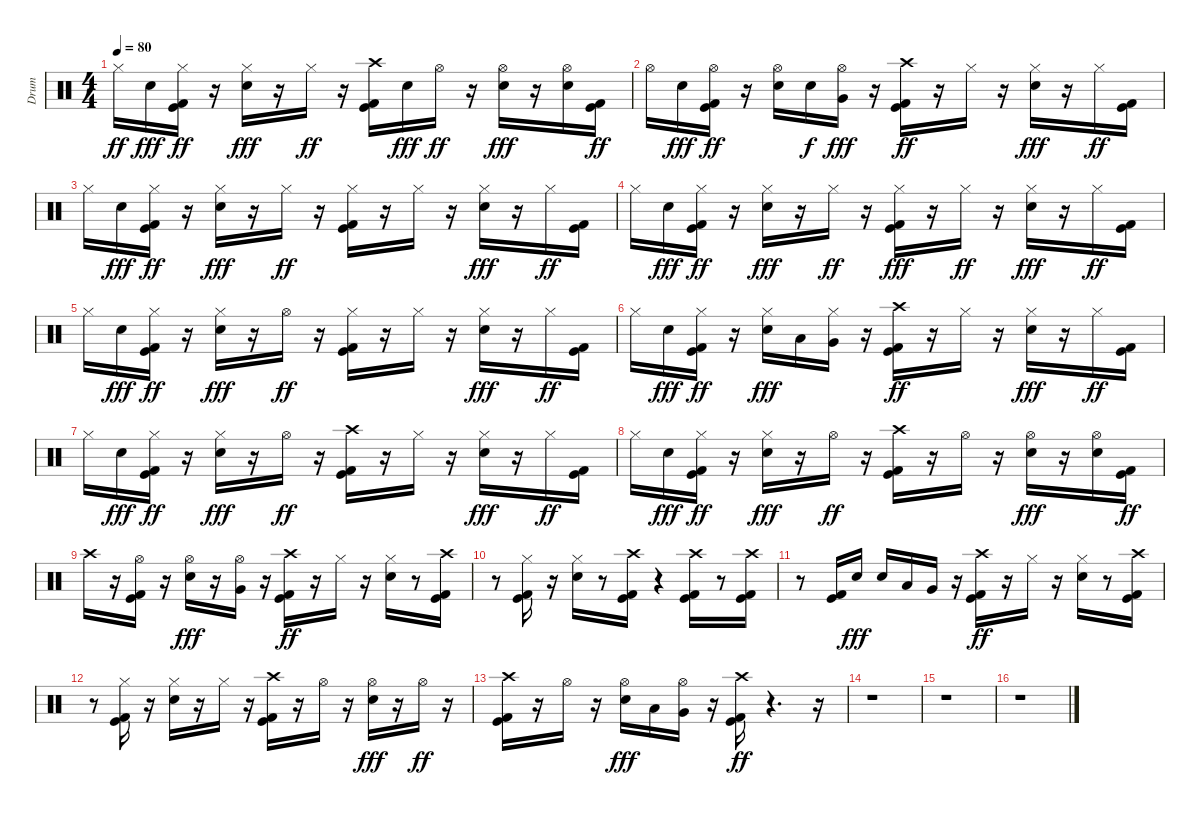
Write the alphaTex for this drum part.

\track ("Drum" "Drum") {instrument percussion}
\staff {score}
\articulation defaults
\ts (4 4)
\tempo 80
\clef neutral
\ks c "Hi-Hat (closed)".16{dy ff} "Electric Snare (hit)".16{dy fff}
("Hi-Hat (closed)" "Kick (hit)" "Kick (hit) 2").16{dy ff} r.16 ("Hi-Hat (closed)" "Electric Snare (hit)").16{dy fff} r.16 "Hi-Hat (closed)".16{dy ff} r.16 ("Kick (hit)" "Kick (hit) 2" "Crash high (hit)").16 "Electric Snare (hit)".16{dy fff} "Hi-Hat (open)".16{dy ff} r.16 ("Hi-Hat (open)" "Electric Snare (hit)").16{dy fff} r.16 ("Hi-Hat (open)" "Electric Snare (hit)").16 ("Kick (hit)" "Kick (hit) 2").16{dy ff} |
"Hi-Hat (open)".16 "Electric Snare (hit)".16{dy fff} ("Kick (hit)" "Kick (hit) 2" "Hi-Hat (open)").16{dy ff} r.16 ("Electric Snare (hit)" "Hi-Hat (open)").16 "Electric Snare (hit)".16{dy f} ("Hi-Hat (open)" "Very Low Tom (hit)").16{dy fff} r.16 ("Crash high (hit)" "Kick (hit)" "Kick (hit) 2").16{dy ff} r.16 "Hi-Hat (closed)".16 r.16 ("Hi-Hat (closed)" "Electric Snare (hit)").16{dy fff} r.16 "Hi-Hat (closed)".16{dy ff} ("Kick (hit)" "Kick (hit) 2").16 |
"Hi-Hat (closed)".16 "Electric Snare (hit)".16{dy fff} ("Hi-Hat (closed)" "Kick (hit)" "Kick (hit) 2").16{dy ff} r.16 ("Hi-Hat (closed)" "Electric Snare (hit)").16{dy fff} r.16 "Hi-Hat (closed)".16{dy ff} r.16 ("Hi-Hat (closed)" "Kick (hit)" "Kick (hit) 2").16 r.16 "Hi-Hat (closed)".16 r.16 ("Hi-Hat (closed)" "Electric Snare (hit)").16{dy fff} r.16 "Hi-Hat (closed)".16{dy ff} ("Kick (hit)" "Kick (hit) 2").16 |
"Hi-Hat (closed)".16 "Electric Snare (hit)".16{dy fff} ("Hi-Hat (closed)" "Kick (hit)" "Kick (hit) 2").16{dy ff} r.16 ("Hi-Hat (closed)" "Electric Snare (hit)").16{dy fff} r.16 "Hi-Hat (closed)".16{dy ff} r.16 ("Kick (hit)" "Kick (hit) 2" "Hi-Hat (closed)").16{dy fff} r.16 "Hi-Hat (closed)".16{dy ff} r.16 ("Hi-Hat (closed)" "Electric Snare (hit)").16{dy fff} r.16 "Hi-Hat (closed)".16{dy ff} ("Kick (hit)" "Kick (hit) 2").16 |
"Hi-Hat (closed)".16 "Electric Snare (hit)".16{dy fff} ("Hi-Hat (closed)" "Kick (hit)" "Kick (hit) 2").16{dy ff} r.16 ("Hi-Hat (closed)" "Electric Snare (hit)").16{dy fff} r.16 "Hi-Hat (open)".16{dy ff} r.16 ("Hi-Hat (closed)" "Kick (hit)" "Kick (hit) 2").16 r.16 "Hi-Hat (closed)".16 r.16 ("Hi-Hat (closed)" "Electric Snare (hit)").16{dy fff} r.16 "Hi-Hat (closed)".16{dy ff} ("Kick (hit)" "Kick (hit) 2").16 |
"Hi-Hat (closed)".16 "Electric Snare (hit)".16{dy fff} ("Hi-Hat (closed)" "Kick (hit)" "Kick (hit) 2").16{dy ff} r.16 ("Hi-Hat (closed)" "Electric Snare (hit)").16{dy fff} "Low Tom (hit)".16 ("Hi-Hat (closed)" "Very Low Tom (hit)").16 r.16 ("Kick (hit)" "Kick (hit) 2" "Crash high (hit)").16{dy ff} r.16 "Hi-Hat (closed)".16 r.16 ("Hi-Hat (closed)" "Electric Snare (hit)").16{dy fff} r.16 "Hi-Hat (closed)".16{dy ff} ("Kick (hit)" "Kick (hit) 2").16 |
"Hi-Hat (closed)".16 "Electric Snare (hit)".16{dy fff} ("Hi-Hat (closed)" "Kick (hit)" "Kick (hit) 2").16{dy ff} r.16 ("Hi-Hat (closed)" "Electric Snare (hit)").16{dy fff} r.16 "Hi-Hat (open)".16{dy ff} r.16 ("Kick (hit)" "Kick (hit) 2" "Crash high (hit)").16 r.16 "Hi-Hat (closed)".16 r.16 ("Hi-Hat (closed)" "Electric Snare (hit)").16{dy fff} r.16 "Hi-Hat (closed)".16{dy ff} ("Kick (hit)" "Kick (hit) 2").16 |
"Hi-Hat (closed)".16 "Electric Snare (hit)".16{dy fff} ("Hi-Hat (closed)" "Kick (hit)" "Kick (hit) 2").16{dy ff} r.16 ("Hi-Hat (closed)" "Electric Snare (hit)").16{dy fff} r.16 "Hi-Hat (open)".16{dy ff} r.16 ("Crash high (hit)" "Kick (hit)" "Kick (hit) 2").16 r.16 "Hi-Hat (open)".16 r.16 ("Hi-Hat (open)" "Electric Snare (hit)").16{dy fff} r.16 ("Hi-Hat (open)" "Electric Snare (hit)").16 ("Kick (hit)" "Kick (hit) 2").16{dy ff} |
"Crash high (hit)".16 r.16 ("Hi-Hat (open)" "Kick (hit)" "Kick (hit) 2").16 r.16 ("Hi-Hat (open)" "Electric Snare (hit)").16{dy fff} r.16 ("Hi-Hat (open)" "Very Low Tom (hit)").16 r.16 ("Crash high (hit)" "Kick (hit) 2" "Kick (hit)").16{dy ff} r.16 "Hi-Hat (closed)".16 r.16 ("Electric Snare (hit)" "Hi-Hat (closed)").16 r.8 ("Crash high (hit)" "Kick (hit) 2" "Kick (hit)").16 |
r.8 ("Kick (hit) 2" "Kick (hit)" "Hi-Hat (closed)").16 r.16 ("Electric Snare (hit)" "Hi-Hat (closed)").16 r.8 ("Crash high (hit)" "Kick (hit) 2" "Kick (hit)").16 r.4 ("Crash high (hit)" "Kick (hit)" "Kick (hit) 2").16 r.8 ("Crash high (hit)" "Kick (hit) 2" "Kick (hit)").16 |
r.8 ("Kick (hit) 2" "Kick (hit)").16 "Electric Snare (hit)".16{dy fff} "Electric Snare (hit)".16 "Low Tom (hit)".16 "Very Low Tom (hit)".16 r.16 ("Crash high (hit)" "Kick (hit)" "Kick (hit) 2").16{dy ff} r.16 "Hi-Hat (closed)".16 r.16 ("Electric Snare (hit)" "Hi-Hat (closed)").16 r.8 ("Kick (hit)" "Kick (hit) 2" "Crash high (hit)").16 |
r.8 ("Kick (hit)" "Kick (hit) 2" "Hi-Hat (closed)").16 r.16 ("Electric Snare (hit)" "Hi-Hat (closed)").16 r.16 "Hi-Hat (closed)".16 r.16 ("Kick (hit)" "Kick (hit) 2" "Crash high (hit)").16 r.16 "Hi-Hat (open)".16 r.16 ("Hi-Hat (open)" "Electric Snare (hit)").16{dy fff} r.16 "Hi-Hat (open)".16{dy ff} r.16 |
("Kick (hit) 2" "Kick (hit)" "Crash high (hit)").16 r.16 "Hi-Hat (open)".16 r.16 ("Hi-Hat (open)" "Electric Snare (hit)").16{dy fff} "Low Tom (hit)".16 ("Hi-Hat (open)" "Very Low Tom (hit)").16 r.16 ("Kick (hit)" "Kick (hit) 2" "Crash high (hit)").16{dy ff} r.4{d} r.16 |
r.1 |
r.1 |
r.1
